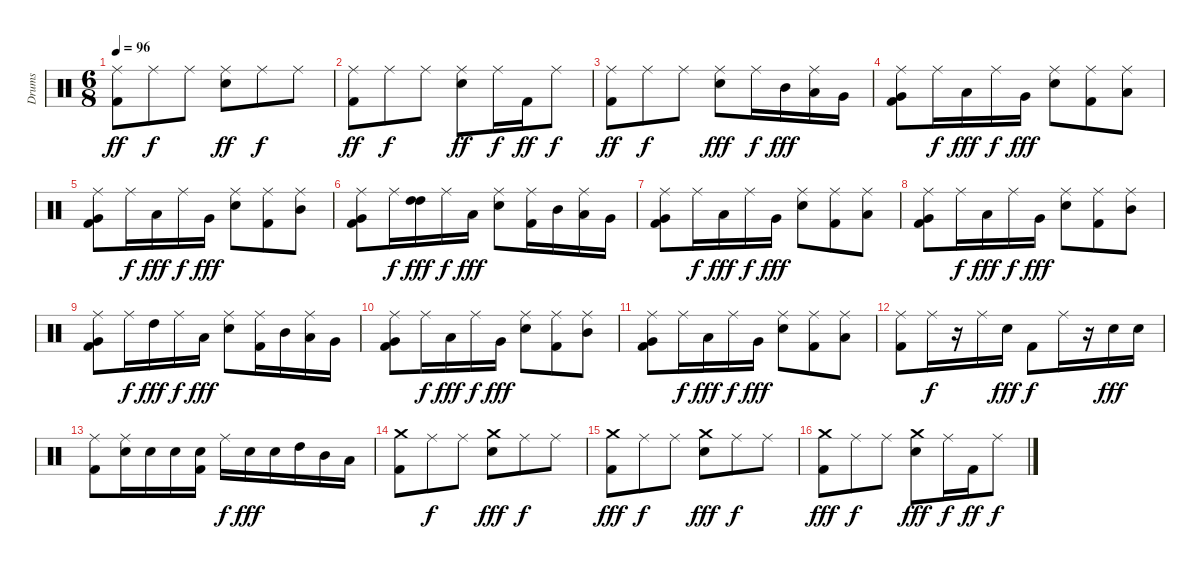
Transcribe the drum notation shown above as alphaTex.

\track ("Drums" "Drums") {instrument percussion}
\staff {score}
\articulation defaults
\ts (6 8)
\tempo 96
\clef neutral
\ks c
("Kick (hit) 2" "Ride (middle)").8{dy ff} "Ride (middle)".8{dy f} "Ride (middle)".8 ("Electric Snare (hit)" "Ride (middle)").8{dy ff} "Ride (middle)".8{dy f} "Ride (middle)".8 |
("Kick (hit) 2" "Ride (middle)").8{dy ff} "Ride (middle)".8{dy f} "Ride (middle)".8 ("Electric Snare (hit)" "Ride (middle)").8{dy ff} "Ride (middle)".16{dy f} "Kick (hit) 2".16{dy ff} "Ride (middle)".8{dy f} |
("Kick (hit) 2" "Ride (middle)").8{dy ff} "Ride (middle)".8{dy f} "Ride (middle)".8 ("Electric Snare (hit)" "Ride (middle)").8{dy fff} "Ride (middle)".16{dy f} "Mid Tom (hit)".16{dy fff} ("Ride (middle)" "Low Tom (hit)").16 "Very Low Tom (hit)".16 |
("Ride (middle)" "Kick (hit) 2" "Very Low Tom (hit)").8 "Ride (middle)".16{dy f} "Low Tom (hit)".16{dy fff} "Ride (middle)".16{dy f} "Very Low Tom (hit)".16{dy fff} ("Ride (middle)" "Electric Snare (hit)").8 ("Ride (middle)" "Kick (hit) 2").8 ("Ride (middle)" "Low Tom (hit)").8 |
("Ride (middle)" "Kick (hit) 2" "Very Low Tom (hit)").8 "Ride (middle)".16{dy f} "Low Tom (hit)".16{dy fff} "Ride (middle)".16{dy f} "Very Low Tom (hit)".16{dy fff} ("Ride (middle)" "Electric Snare (hit)").8 ("Ride (middle)" "Kick (hit) 2").8 ("Ride (middle)" "Mid Tom (hit)").8 |
("Ride (middle)" "Very Low Tom (hit)" "Kick (hit) 2").8 "Ride (middle)".16{dy f} ("High Tom (hit)" "High Tom (hit)").16{dy fff} "Ride (middle)".16{dy f} "Low Tom (hit)".16{dy fff} ("Ride (middle)" "Electric Snare (hit)").8 ("Ride (middle)" "Kick (hit) 2").16 "Mid Tom (hit)".16 ("Ride (middle)" "Low Tom (hit)").16 "Very Low Tom (hit)".16 |
("Ride (middle)" "Very Low Tom (hit)" "Kick (hit) 2").8 "Ride (middle)".16{dy f} "Low Tom (hit)".16{dy fff} "Ride (middle)".16{dy f} "Very Low Tom (hit)".16{dy fff} ("Ride (middle)" "Electric Snare (hit)").8 ("Ride (middle)" "Kick (hit) 2").8 ("Ride (middle)" "Low Tom (hit)").8 |
("Ride (middle)" "Very Low Tom (hit)" "Kick (hit) 2").8 "Ride (middle)".16{dy f} "Low Tom (hit)".16{dy fff} "Ride (middle)".16{dy f} "Very Low Tom (hit)".16{dy fff} ("Ride (middle)" "Electric Snare (hit)").8 ("Ride (middle)" "Kick (hit) 2").8 ("Ride (middle)" "Mid Tom (hit)").8 |
("Ride (middle)" "Kick (hit) 2" "Very Low Tom (hit)").8 "Ride (middle)".16{dy f} "High Tom (hit)".16{dy fff} "Ride (middle)".16{dy f} "Low Tom (hit)".16{dy fff} ("Ride (middle)" "Electric Snare (hit)").8 ("Ride (middle)" "Kick (hit) 2").16 "Mid Tom (hit)".16 ("Ride (middle)" "Low Tom (hit)").16 "Very Low Tom (hit)".16 |
("Ride (middle)" "Very Low Tom (hit)" "Kick (hit) 2").8 "Ride (middle)".16{dy f} "Low Tom (hit)".16{dy fff} "Ride (middle)".16{dy f} "Very Low Tom (hit)".16{dy fff} ("Ride (middle)" "Electric Snare (hit)").8 ("Ride (middle)" "Kick (hit) 2").8 ("Ride (middle)" "Mid Tom (hit)").8 |
("Ride (middle)" "Very Low Tom (hit)" "Kick (hit) 2").8 "Ride (middle)".16{dy f} "Low Tom (hit)".16{dy fff} "Ride (middle)".16{dy f} "Very Low Tom (hit)".16{dy fff} ("Ride (middle)" "Electric Snare (hit)").8 ("Ride (middle)" "Kick (hit) 2").8 ("Ride (middle)" "Low Tom (hit)").8 |
("Ride (middle)" "Kick (hit) 2").8 "Ride (middle)".16{dy f} r.16 "Ride (middle)".16 "Electric Snare (hit)".16{dy fff} "Kick (hit) 2".8{dy f} "Ride (middle)".16 r.16 "Electric Snare (hit)".16{dy fff} "Electric Snare (hit)".16 |
("Ride (middle)" "Kick (hit) 2").8 ("Ride (middle)" "Electric Snare (hit)").16 "Electric Snare (hit)".16 "Electric Snare (hit)".16 ("Kick (hit) 2" "Electric Snare (hit)").16 "Ride (middle)".16{dy f} "Electric Snare (hit)".16{dy fff} "Electric Snare (hit)".16 "High Tom (hit)".16 "Mid Tom (hit)".16 "Low Tom (hit)".16 |
("Kick (hit) 2" "Crash medium (hit)").8 "Ride (middle)".8{dy f} "Ride (middle)".8 ("Electric Snare (hit)" "Crash medium (hit)").8{dy fff} "Ride (middle)".8{dy f} "Ride (middle)".8 |
("Kick (hit) 2" "Crash medium (hit)").8{dy fff} "Ride (middle)".8{dy f} "Ride (middle)".8 ("Electric Snare (hit)" "Crash medium (hit)").8{dy fff} "Ride (middle)".8{dy f} "Ride (middle)".8 |
("Kick (hit) 2" "Crash medium (hit)").8{dy fff} "Ride (middle)".8{dy f} "Ride (middle)".8 ("Electric Snare (hit)" "Crash medium (hit)").8{dy fff} "Ride (middle)".16{dy f} "Kick (hit) 2".16{dy ff} "Ride (middle)".8{dy f}
